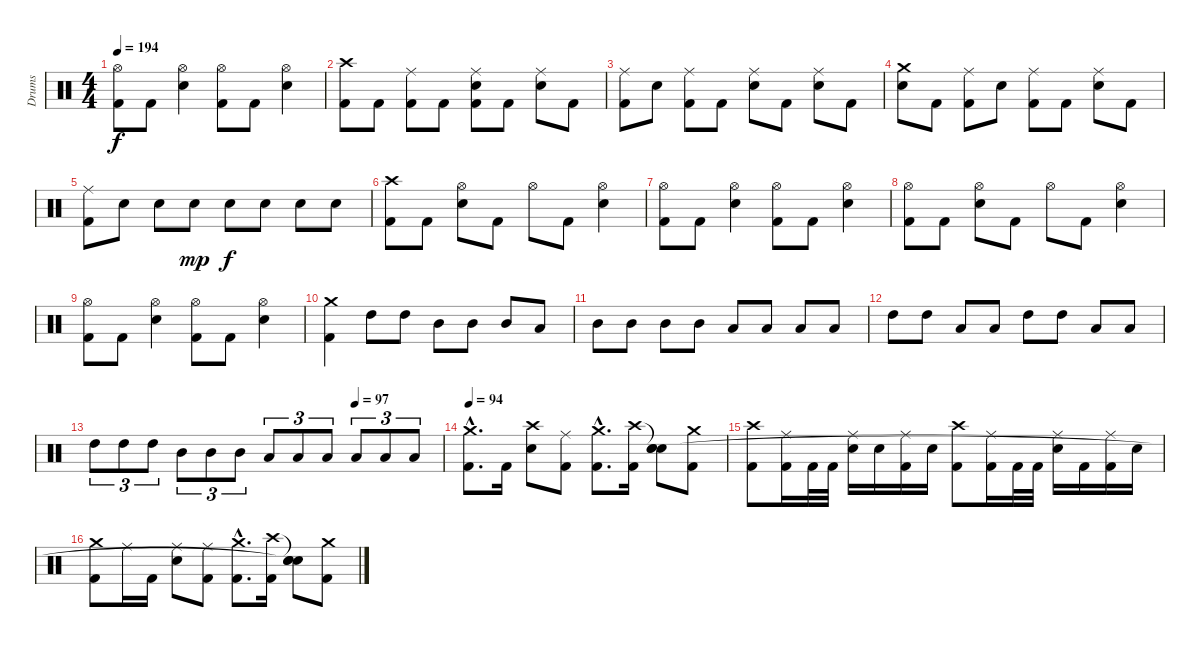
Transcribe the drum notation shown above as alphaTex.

\track ("Drums" "Drums") {instrument percussion}
\staff {score}
\articulation defaults
\ts (4 4)
\tempo 194
\clef neutral
\ks c
("Hi-Hat (open)" "Kick (hit) 2").8{dy f} "Kick (hit) 2".8 ("Hi-Hat (open)" "Electric Snare (hit)").4 ("Hi-Hat (open)" "Kick (hit) 2").8 "Kick (hit) 2".8 ("Hi-Hat (open)" "Electric Snare (hit)").4 |
("Crash high (hit)" "Kick (hit) 2").8 "Kick (hit) 2".8 ("Ride (middle)" "Kick (hit) 2").8 "Kick (hit) 2".8 ("Ride (middle)" "Electric Snare (hit)" "Kick (hit) 2").8 "Kick (hit) 2".8 ("Ride (middle)" "Electric Snare (hit)").8 "Kick (hit) 2".8 |
("Ride (middle)" "Kick (hit) 2").8 "Electric Snare (hit)".8 ("Ride (middle)" "Kick (hit) 2").8 "Kick (hit) 2".8 ("Ride (middle)" "Electric Snare (hit)").8 "Kick (hit) 2".8 ("Ride (middle)" "Electric Snare (hit)").8 "Kick (hit) 2".8 |
("Crash medium (hit)" "Electric Snare (hit)").8 "Kick (hit) 2".8 ("Ride (middle)" "Kick (hit) 2").8 "Electric Snare (hit)".8 ("Ride (middle)" "Kick (hit) 2").8 "Kick (hit) 2".8 ("Ride (middle)" "Electric Snare (hit)").8 "Kick (hit) 2".8 |
("Ride (middle)" "Kick (hit) 2").8 "Electric Snare (hit)".8 "Electric Snare (hit)".8 "Electric Snare (hit)".8{dy mp} "Electric Snare (hit)".8{dy f} "Electric Snare (hit)".8 "Electric Snare (hit)".8 "Electric Snare (hit)".8 |
("Crash high (hit)" "Kick (hit) 2").8 "Kick (hit) 2".8 ("Hi-Hat (open)" "Electric Snare (hit)").8 "Kick (hit) 2".8 "Hi-Hat (open)".8 "Kick (hit) 2".8 ("Hi-Hat (open)" "Electric Snare (hit)").4 |
("Hi-Hat (open)" "Kick (hit) 2").8 "Kick (hit) 2".8 ("Hi-Hat (open)" "Electric Snare (hit)").4 ("Hi-Hat (open)" "Kick (hit) 2").8 "Kick (hit) 2".8 ("Hi-Hat (open)" "Electric Snare (hit)").4 |
("Hi-Hat (open)" "Kick (hit) 2").8 "Kick (hit) 2".8 ("Hi-Hat (open)" "Electric Snare (hit)").8 "Kick (hit) 2".8 "Hi-Hat (open)".8 "Kick (hit) 2".8 ("Hi-Hat (open)" "Electric Snare (hit)").4 |
("Hi-Hat (open)" "Kick (hit) 2").8 "Kick (hit) 2".8 ("Hi-Hat (open)" "Electric Snare (hit)").4 ("Hi-Hat (open)" "Kick (hit) 2").8 "Kick (hit) 2".8 ("Hi-Hat (open)" "Electric Snare (hit)").4 |
("Crash medium (hit)" "Kick (hit) 2").4 "High Tom (hit)".8 "High Tom (hit)".8 "Mid Tom (hit)".8 "Mid Tom (hit)".8 "Mid Tom (hit)".8 "Low Tom (hit)".8 |
"Mid Tom (hit)".8 "Mid Tom (hit)".8 "Mid Tom (hit)".8 "Mid Tom (hit)".8 "Low Tom (hit)".8 "Low Tom (hit)".8 "Low Tom (hit)".8 "Low Tom (hit)".8 |
"High Tom (hit)".8 "High Tom (hit)".8 "Low Tom (hit)".8 "Low Tom (hit)".8 "High Tom (hit)".8 "High Tom (hit)".8 "Low Tom (hit)".8 "Low Tom (hit)".8 |
\tempo (97 0.75)
"High Tom (hit)".8{tu (3 2)} "High Tom (hit)".8{tu (3 2)} "High Tom (hit)".8{tu (3 2)} "Mid Tom (hit)".8{tu (3 2)} "Mid Tom (hit)".8{tu (3 2)} "Mid Tom (hit)".8{tu (3 2)} "Low Tom (hit)".8{tu (3 2)} "Low Tom (hit)".8{tu (3 2)} "Low Tom (hit)".8{tu (3 2)} "Low Floor Tom (hit)".8{tu (3 2)} "Low Floor Tom (hit)".8{tu (3 2)} "Low Floor Tom (hit)".8{tu (3 2)} |
\tempo 94
("Crash medium (hit)"{hac} "Kick (hit) 2"{hac}).8{d} "Kick (hit) 2".16 ("Crash high (hit)" "Electric Snare (hit)").8 ("Ride (middle)" "Kick (hit) 2").8 ("Crash medium (hit)"{hac} "Kick (hit) 2"{hac}).8{d} ("Crash high (hit)" "Kick (hit) 2").16 ("Snare (hit)"{t} "Electric Snare (hit)" "Snare (hit)").8 ("Crash medium (hit)" "Kick (hit) 2").8 |
("Crash high (hit)" "Kick (hit) 2").8 ("Ride (middle)" "Kick (hit) 2").16 "Kick (hit) 2".32 "Kick (hit) 2".32 ("Ride (middle)" "Electric Snare (hit)").16 "Electric Snare (hit)".16 ("Ride (middle)" "Kick (hit) 2").16 "Electric Snare (hit)".16 ("Crash high (hit)" "Kick (hit) 2").8 ("Ride (middle)" "Kick (hit) 2").16 "Kick (hit) 2".32 "Kick (hit) 2".32 ("Ride (middle)" "Electric Snare (hit)").16 "Kick (hit) 2".16 ("Ride (middle)" "Kick (hit) 2").16 "Electric Snare (hit)".16 |
("Crash medium (hit)" "Kick (hit) 2").8 "Ride (middle)".16 "Kick (hit) 2".16 ("Ride (middle)" "Electric Snare (hit)").8 ("Ride (middle)" "Kick (hit) 2").8 ("Crash medium (hit)"{hac} "Kick (hit) 2"{hac}).8{d} ("Crash high (hit)" "Kick (hit) 2").16 ("Snare (hit)"{t} "Electric Snare (hit)" "Snare (hit)"{t}).8 ("Crash medium (hit)" "Kick (hit) 2").8
